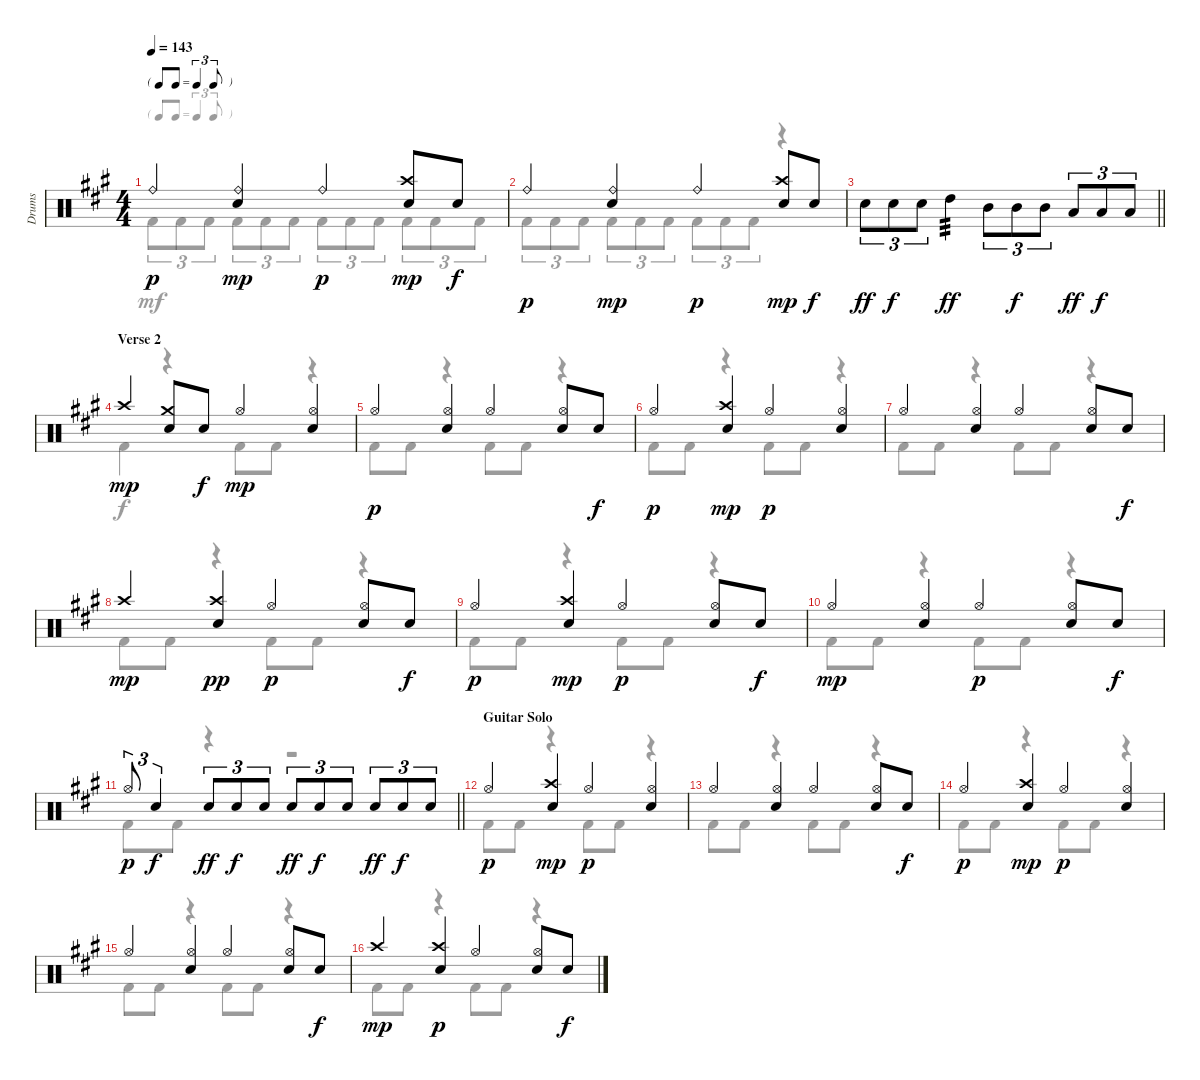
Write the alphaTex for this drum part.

\track ("Drums" "Drums") {instrument percussion}
\staff {score}
\articulation defaults
\voice
\ts (4 4)
\tf triplet8th
\tempo 143
\clef neutral
\ks a "Ride (bell)".4{dy p}
("Ride (bell)" "Electric Snare (hit)").4{dy mp} "Ride (bell)".4{dy p} ("Crash high (hit)" "Electric Snare (hit)").8{dy mp} "Electric Snare (hit)".8{dy f} |
"Ride (bell)".4{dy p} ("Ride (bell)" "Electric Snare (hit)").4{dy mp} "Ride (bell)".4{dy p} ("Crash high (hit)" "Electric Snare (hit)").8{dy mp} "Electric Snare (hit)".8{dy f} |
\barLineRight lightlight "Electric Snare (hit)".8{tu (3 2) dy ff} "Electric Snare (hit)".8{tu (3 2) dy f} "Electric Snare (hit)".8{tu (3 2)} "High Tom (hit)".4{tp 3 dy ff} "Mid Tom (hit)".8{tu (3 2)} "Mid Tom (hit)".8{tu (3 2) dy f} "Mid Tom (hit)".8{tu (3 2)} "Low Tom (hit)".8{tu (3 2) dy ff} "Low Tom (hit)".8{tu (3 2) dy f} "Low Tom (hit)".8{tu (3 2)}
|
\section ("" "Verse 2")
"Crash high (hit)".4{dy mp} ("Electric Snare (hit)" "Crash medium (hit)").8 "Electric Snare (hit)".8{dy f} "Hi-Hat (open)".4{dy mp} ("Hi-Hat (open)" "Electric Snare (hit)").4 |
"Hi-Hat (open)".4{dy p} ("Hi-Hat (open)" "Electric Snare (hit)").4 "Hi-Hat (open)".4 ("Hi-Hat (open)" "Electric Snare (hit)").8 "Electric Snare (hit)".8{dy f} |
"Hi-Hat (open)".4{dy p} ("Crash high (hit)" "Electric Snare (hit)").4{dy mp} "Hi-Hat (open)".4{dy p} ("Hi-Hat (open)" "Electric Snare (hit)").4 |
"Hi-Hat (open)".4 ("Hi-Hat (open)" "Electric Snare (hit)").4 "Hi-Hat (open)".4 ("Hi-Hat (open)" "Electric Snare (hit)").8 "Electric Snare (hit)".8{dy f} |
"Crash high (hit)".4{dy mp} ("Crash high (hit)" "Electric Snare (hit)").4{dy pp} "Hi-Hat (open)".4{dy p} ("Hi-Hat (open)" "Electric Snare (hit)").8 "Electric Snare (hit)".8{dy f} |
"Hi-Hat (open)".4{dy p} ("Crash high (hit)" "Electric Snare (hit)").4{dy mp} "Hi-Hat (open)".4{dy p} ("Hi-Hat (open)" "Electric Snare (hit)").8 "Electric Snare (hit)".8{dy f} |
"Hi-Hat (open)".4{dy mp} ("Hi-Hat (open)" "Electric Snare (hit)").4 "Hi-Hat (open)".4{dy p} ("Hi-Hat (open)" "Electric Snare (hit)").8 "Electric Snare (hit)".8{dy f} |
\barLineRight lightlight "Hi-Hat (open)".8{tu (3 2) dy p} "Electric Snare (hit)".4{tu (3 2) dy f} "Electric Snare (hit)".8{tu (3 2) dy ff} "Electric Snare (hit)".8{tu (3 2) dy f} "Electric Snare (hit)".8{tu (3 2)} "Electric Snare (hit)".8{tu (3 2) dy ff} "Electric Snare (hit)".8{tu (3 2) dy f} "Electric Snare (hit)".8{tu (3 2)} "Electric Snare (hit)".8{tu (3 2) dy ff} "Electric Snare (hit)".8{tu (3 2) dy f} "Electric Snare (hit)".8{tu (3 2)}
|
\section ("" "Guitar Solo")
"Hi-Hat (open)".4{dy p} ("Crash high (hit)" "Electric Snare (hit)").4{dy mp} "Hi-Hat (open)".4{dy p} ("Hi-Hat (open)" "Electric Snare (hit)").4 |
"Hi-Hat (open)".4 ("Hi-Hat (open)" "Electric Snare (hit)").4 "Hi-Hat (open)".4 ("Hi-Hat (open)" "Electric Snare (hit)").8 "Electric Snare (hit)".8{dy f} |
"Hi-Hat (open)".4{dy p} ("Crash high (hit)" "Electric Snare (hit)").4{dy mp} "Hi-Hat (open)".4{dy p} ("Hi-Hat (open)" "Electric Snare (hit)").4 |
"Hi-Hat (open)".4 ("Hi-Hat (open)" "Electric Snare (hit)").4 "Hi-Hat (open)".4 ("Hi-Hat (open)" "Electric Snare (hit)").8 "Electric Snare (hit)".8{dy f} |
"Crash high (hit)".4{dy mp} ("Crash high (hit)" "Electric Snare (hit)").4{dy p} "Hi-Hat (open)".4 ("Hi-Hat (open)" "Electric Snare (hit)").8 "Electric Snare (hit)".8{dy f}
\voice
\clef neutral
\ottava regular
\simile none
\ks a "Kick (hit) 2".8{tu (3 2) dy mf} "Kick (hit) 2".8{tu (3 2)} "Kick (hit) 2".8{tu (3 2)} "Kick (hit) 2".8{tu (3 2)} "Kick (hit) 2".8{tu (3 2)} "Kick (hit) 2".8{tu (3 2)} "Kick (hit) 2".8{tu (3 2)} "Kick (hit) 2".8{tu (3 2)} "Kick (hit) 2".8{tu (3 2)} "Kick (hit) 2".8{tu (3 2)} "Kick (hit) 2".8{tu (3 2)} "Kick (hit) 2".8{tu (3 2)}
|
"Kick (hit) 2".8{tu (3 2)} "Kick (hit) 2".8{tu (3 2)} "Kick (hit) 2".8{tu (3 2)} "Kick (hit) 2".8{tu (3 2)} "Kick (hit) 2".8{tu (3 2)} "Kick (hit) 2".8{tu (3 2)} "Kick (hit) 2".8{tu (3 2)} "Kick (hit) 2".8{tu (3 2)} "Kick (hit) 2".8{tu (3 2)} r.4 |
\barLineRight lightlight
|
"Kick (hit) 2".4{dy f} r.4 "Kick (hit) 2".8 "Kick (hit) 2".8 r.4 |
"Kick (hit) 2".8 "Kick (hit) 2".8 r.4 "Kick (hit) 2".8 "Kick (hit) 2".8 r.4 |
"Kick (hit) 2".8 "Kick (hit) 2".8 r.4 "Kick (hit) 2".8 "Kick (hit) 2".8 r.4 |
"Kick (hit) 2".8 "Kick (hit) 2".8 r.4 "Kick (hit) 2".8 "Kick (hit) 2".8 r.4 |
"Kick (hit) 2".8 "Kick (hit) 2".8 r.4 "Kick (hit) 2".8 "Kick (hit) 2".8 r.4 |
"Kick (hit) 2".8 "Kick (hit) 2".8 r.4 "Kick (hit) 2".8 "Kick (hit) 2".8 r.4 |
"Kick (hit) 2".8 "Kick (hit) 2".8 r.4 "Kick (hit) 2".8 "Kick (hit) 2".8 r.4 |
\barLineRight lightlight "Kick (hit) 2".8 "Kick (hit) 2".8
r.4 r.2 |
"Kick (hit) 2".8 "Kick (hit) 2".8 r.4 "Kick (hit) 2".8 "Kick (hit) 2".8 r.4 |
"Kick (hit) 2".8 "Kick (hit) 2".8 r.4 "Kick (hit) 2".8 "Kick (hit) 2".8 r.4 |
"Kick (hit) 2".8 "Kick (hit) 2".8 r.4 "Kick (hit) 2".8 "Kick (hit) 2".8 r.4 |
"Kick (hit) 2".8 "Kick (hit) 2".8 r.4 "Kick (hit) 2".8 "Kick (hit) 2".8 r.4 |
"Kick (hit) 2".8 "Kick (hit) 2".8 r.4 "Kick (hit) 2".8 "Kick (hit) 2".8 r.4
